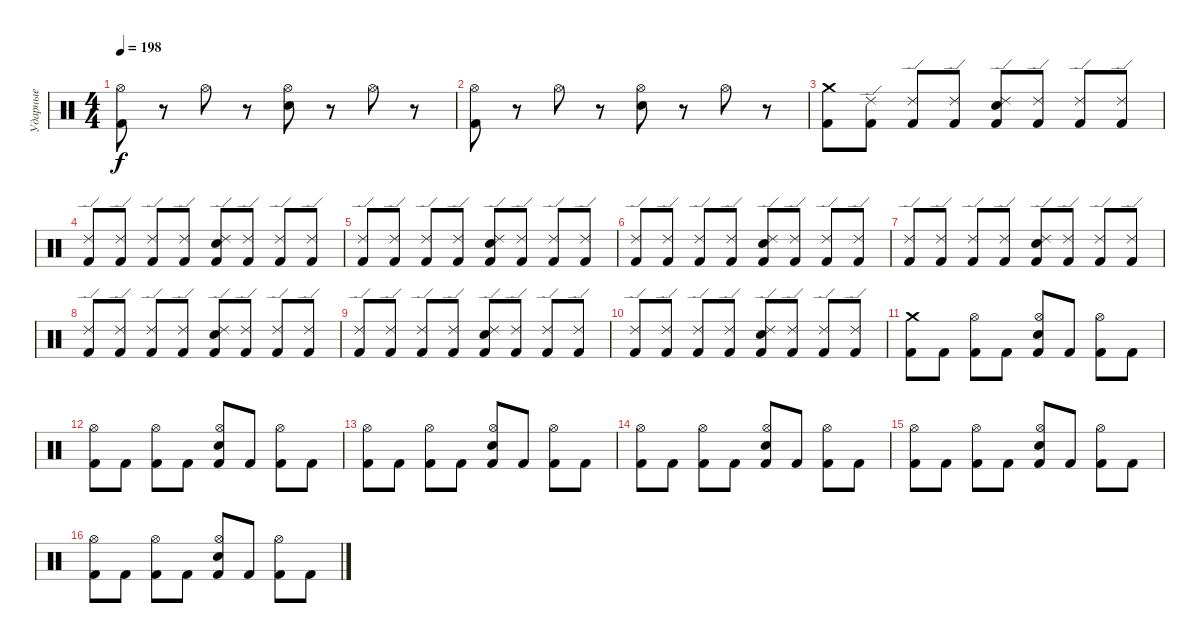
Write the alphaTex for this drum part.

\track ("Ударные" "Ударные") {instrument percussion}
\staff {score}
\articulation defaults
\ts (4 4)
\tempo 198
\clef neutral
\ks c
("Kick (hit) 2" "Hi-Hat (open)").8{dy f} r.8 "Hi-Hat (open)".8 r.8 ("Electric Snare (hit)" "Hi-Hat (open)").8 r.8 "Hi-Hat (open)".8 r.8 |
("Kick (hit) 2" "Hi-Hat (open)").8 r.8 "Hi-Hat (open)".8 r.8 ("Electric Snare (hit)" "Hi-Hat (open)").8 r.8 "Hi-Hat (open)".8 r.8 |
("Kick (hit) 2" "Crash medium (hit)").8 ("Kick (hit) 2" "Ride (edge) 2").8 ("Kick (hit) 2" "Ride (edge) 2").8 ("Kick (hit) 2" "Ride (edge) 2").8 ("Kick (hit) 2" "Ride (edge) 2" "Electric Snare (hit)").8 ("Kick (hit) 2" "Ride (edge) 2").8 ("Kick (hit) 2" "Ride (edge) 2").8 ("Kick (hit) 2" "Ride (edge) 2").8 |
("Kick (hit) 2" "Ride (edge) 2").8 ("Kick (hit) 2" "Ride (edge) 2").8 ("Kick (hit) 2" "Ride (edge) 2").8 ("Kick (hit) 2" "Ride (edge) 2").8 ("Kick (hit) 2" "Ride (edge) 2" "Electric Snare (hit)").8 ("Kick (hit) 2" "Ride (edge) 2").8 ("Kick (hit) 2" "Ride (edge) 2").8 ("Kick (hit) 2" "Ride (edge) 2").8 |
("Kick (hit) 2" "Ride (edge) 2").8 ("Kick (hit) 2" "Ride (edge) 2").8 ("Kick (hit) 2" "Ride (edge) 2").8 ("Kick (hit) 2" "Ride (edge) 2").8 ("Kick (hit) 2" "Ride (edge) 2" "Electric Snare (hit)").8 ("Kick (hit) 2" "Ride (edge) 2").8 ("Kick (hit) 2" "Ride (edge) 2").8 ("Kick (hit) 2" "Ride (edge) 2").8 |
("Kick (hit) 2" "Ride (edge) 2").8 ("Kick (hit) 2" "Ride (edge) 2").8 ("Kick (hit) 2" "Ride (edge) 2").8 ("Kick (hit) 2" "Ride (edge) 2").8 ("Kick (hit) 2" "Ride (edge) 2" "Electric Snare (hit)").8 ("Kick (hit) 2" "Ride (edge) 2").8 ("Kick (hit) 2" "Ride (edge) 2").8 ("Kick (hit) 2" "Ride (edge) 2").8 |
("Kick (hit) 2" "Ride (edge) 2").8 ("Kick (hit) 2" "Ride (edge) 2").8 ("Kick (hit) 2" "Ride (edge) 2").8 ("Kick (hit) 2" "Ride (edge) 2").8 ("Kick (hit) 2" "Ride (edge) 2" "Electric Snare (hit)").8 ("Kick (hit) 2" "Ride (edge) 2").8 ("Kick (hit) 2" "Ride (edge) 2").8 ("Kick (hit) 2" "Ride (edge) 2").8 |
("Kick (hit) 2" "Ride (edge) 2").8 ("Kick (hit) 2" "Ride (edge) 2").8 ("Kick (hit) 2" "Ride (edge) 2").8 ("Kick (hit) 2" "Ride (edge) 2").8 ("Kick (hit) 2" "Ride (edge) 2" "Electric Snare (hit)").8 ("Kick (hit) 2" "Ride (edge) 2").8 ("Kick (hit) 2" "Ride (edge) 2").8 ("Kick (hit) 2" "Ride (edge) 2").8 |
("Kick (hit) 2" "Ride (edge) 2").8 ("Kick (hit) 2" "Ride (edge) 2").8 ("Kick (hit) 2" "Ride (edge) 2").8 ("Kick (hit) 2" "Ride (edge) 2").8 ("Kick (hit) 2" "Ride (edge) 2" "Electric Snare (hit)").8 ("Kick (hit) 2" "Ride (edge) 2").8 ("Kick (hit) 2" "Ride (edge) 2").8 ("Kick (hit) 2" "Ride (edge) 2").8 |
("Kick (hit) 2" "Ride (edge) 2").8 ("Kick (hit) 2" "Ride (edge) 2").8 ("Kick (hit) 2" "Ride (edge) 2").8 ("Kick (hit) 2" "Ride (edge) 2").8 ("Kick (hit) 2" "Ride (edge) 2" "Electric Snare (hit)").8 ("Kick (hit) 2" "Ride (edge) 2").8 ("Kick (hit) 2" "Ride (edge) 2").8 ("Kick (hit) 2" "Ride (edge) 2").8 |
("Kick (hit) 2" "Crash medium (hit)").8 "Kick (hit) 2".8 ("Kick (hit) 2" "Hi-Hat (open)").8 "Kick (hit) 2".8 ("Kick (hit) 2" "Hi-Hat (open)" "Electric Snare (hit)").8 "Kick (hit) 2".8 ("Kick (hit) 2" "Hi-Hat (open)").8 "Kick (hit) 2".8 |
("Kick (hit) 2" "Hi-Hat (open)").8 "Kick (hit) 2".8 ("Kick (hit) 2" "Hi-Hat (open)").8 "Kick (hit) 2".8 ("Kick (hit) 2" "Hi-Hat (open)" "Electric Snare (hit)").8 "Kick (hit) 2".8 ("Kick (hit) 2" "Hi-Hat (open)").8 "Kick (hit) 2".8 |
("Kick (hit) 2" "Hi-Hat (open)").8 "Kick (hit) 2".8 ("Kick (hit) 2" "Hi-Hat (open)").8 "Kick (hit) 2".8 ("Kick (hit) 2" "Hi-Hat (open)" "Electric Snare (hit)").8 "Kick (hit) 2".8 ("Kick (hit) 2" "Hi-Hat (open)").8 "Kick (hit) 2".8 |
("Kick (hit) 2" "Hi-Hat (open)").8 "Kick (hit) 2".8 ("Kick (hit) 2" "Hi-Hat (open)").8 "Kick (hit) 2".8 ("Kick (hit) 2" "Hi-Hat (open)" "Electric Snare (hit)").8 "Kick (hit) 2".8 ("Kick (hit) 2" "Hi-Hat (open)").8 "Kick (hit) 2".8 |
("Kick (hit) 2" "Hi-Hat (open)").8{volume 15} "Kick (hit) 2".8 ("Kick (hit) 2" "Hi-Hat (open)").8 "Kick (hit) 2".8 ("Kick (hit) 2" "Hi-Hat (open)" "Electric Snare (hit)").8 "Kick (hit) 2".8 ("Kick (hit) 2" "Hi-Hat (open)").8 "Kick (hit) 2".8 |
("Kick (hit) 2" "Hi-Hat (open)").8{volume 14} "Kick (hit) 2".8 ("Kick (hit) 2" "Hi-Hat (open)").8 "Kick (hit) 2".8 ("Kick (hit) 2" "Hi-Hat (open)" "Electric Snare (hit)").8 "Kick (hit) 2".8 ("Kick (hit) 2" "Hi-Hat (open)").8 "Kick (hit) 2".8
